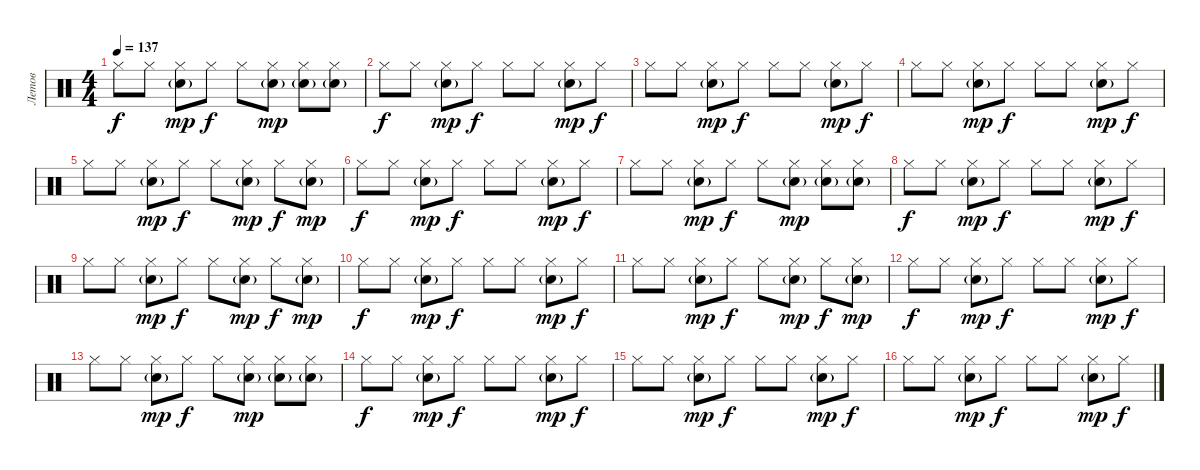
\track ("Летов" "Летов") {instrument percussion}
\staff {score}
\articulation defaults
\ts (4 4)
\tempo 137
\clef neutral
\ks c "Hi-Hat (closed)".8{dy f} "Hi-Hat (closed)".8
("Hi-Hat (closed)" "Electric Snare (hit)"{g}).8{dy mp} "Hi-Hat (closed)".8{dy f} "Hi-Hat (closed)".8 ("Hi-Hat (closed)" "Electric Snare (hit)"{g}).8{dy mp} ("Hi-Hat (closed)" "Electric Snare (hit)"{g}).8 ("Hi-Hat (closed)" "Electric Snare (hit)"{g}).8 |
"Hi-Hat (closed)".8{dy f} "Hi-Hat (closed)".8 ("Hi-Hat (closed)" "Electric Snare (hit)"{g}).8{dy mp} "Hi-Hat (closed)".8{dy f} "Hi-Hat (closed)".8 "Hi-Hat (closed)".8 ("Hi-Hat (closed)" "Electric Snare (hit)"{g}).8{dy mp} "Hi-Hat (closed)".8{dy f} |
"Hi-Hat (closed)".8 "Hi-Hat (closed)".8 ("Hi-Hat (closed)" "Electric Snare (hit)"{g}).8{dy mp} "Hi-Hat (closed)".8{dy f} "Hi-Hat (closed)".8 "Hi-Hat (closed)".8 ("Hi-Hat (closed)" "Electric Snare (hit)"{g}).8{dy mp} "Hi-Hat (closed)".8{dy f} |
"Hi-Hat (closed)".8 "Hi-Hat (closed)".8 ("Hi-Hat (closed)" "Electric Snare (hit)"{g}).8{dy mp} "Hi-Hat (closed)".8{dy f} "Hi-Hat (closed)".8 "Hi-Hat (closed)".8 ("Hi-Hat (closed)" "Electric Snare (hit)"{g}).8{dy mp} "Hi-Hat (closed)".8{dy f} |
"Hi-Hat (closed)".8 "Hi-Hat (closed)".8 ("Hi-Hat (closed)" "Electric Snare (hit)"{g}).8{dy mp} "Hi-Hat (closed)".8{dy f} "Hi-Hat (closed)".8 ("Hi-Hat (closed)" "Electric Snare (hit)"{g}).8{dy mp} "Hi-Hat (closed)".8{dy f} ("Hi-Hat (closed)" "Electric Snare (hit)"{g}).8{dy mp} |
"Hi-Hat (closed)".8{dy f} "Hi-Hat (closed)".8 ("Hi-Hat (closed)" "Electric Snare (hit)"{g}).8{dy mp} "Hi-Hat (closed)".8{dy f} "Hi-Hat (closed)".8 "Hi-Hat (closed)".8 ("Hi-Hat (closed)" "Electric Snare (hit)"{g}).8{dy mp} "Hi-Hat (closed)".8{dy f} |
"Hi-Hat (closed)".8 "Hi-Hat (closed)".8 ("Hi-Hat (closed)" "Electric Snare (hit)"{g}).8{dy mp} "Hi-Hat (closed)".8{dy f} "Hi-Hat (closed)".8 ("Hi-Hat (closed)" "Electric Snare (hit)"{g}).8{dy mp} ("Hi-Hat (closed)" "Electric Snare (hit)"{g}).8 ("Hi-Hat (closed)" "Electric Snare (hit)"{g}).8 |
"Hi-Hat (closed)".8{dy f} "Hi-Hat (closed)".8 ("Hi-Hat (closed)" "Electric Snare (hit)"{g}).8{dy mp} "Hi-Hat (closed)".8{dy f} "Hi-Hat (closed)".8 "Hi-Hat (closed)".8 ("Hi-Hat (closed)" "Electric Snare (hit)"{g}).8{dy mp} "Hi-Hat (closed)".8{dy f} |
"Hi-Hat (closed)".8 "Hi-Hat (closed)".8 ("Hi-Hat (closed)" "Electric Snare (hit)"{g}).8{dy mp} "Hi-Hat (closed)".8{dy f} "Hi-Hat (closed)".8 ("Hi-Hat (closed)" "Electric Snare (hit)"{g}).8{dy mp} "Hi-Hat (closed)".8{dy f} ("Hi-Hat (closed)" "Electric Snare (hit)"{g}).8{dy mp} |
"Hi-Hat (closed)".8{dy f} "Hi-Hat (closed)".8 ("Hi-Hat (closed)" "Electric Snare (hit)"{g}).8{dy mp} "Hi-Hat (closed)".8{dy f} "Hi-Hat (closed)".8 "Hi-Hat (closed)".8 ("Hi-Hat (closed)" "Electric Snare (hit)"{g}).8{dy mp} "Hi-Hat (closed)".8{dy f} |
"Hi-Hat (closed)".8 "Hi-Hat (closed)".8 ("Hi-Hat (closed)" "Electric Snare (hit)"{g}).8{dy mp} "Hi-Hat (closed)".8{dy f} "Hi-Hat (closed)".8 ("Hi-Hat (closed)" "Electric Snare (hit)"{g}).8{dy mp} "Hi-Hat (closed)".8{dy f} ("Hi-Hat (closed)" "Electric Snare (hit)"{g}).8{dy mp} |
"Hi-Hat (closed)".8{dy f} "Hi-Hat (closed)".8 ("Hi-Hat (closed)" "Electric Snare (hit)"{g}).8{dy mp} "Hi-Hat (closed)".8{dy f} "Hi-Hat (closed)".8 "Hi-Hat (closed)".8 ("Hi-Hat (closed)" "Electric Snare (hit)"{g}).8{dy mp} "Hi-Hat (closed)".8{dy f} |
"Hi-Hat (closed)".8 "Hi-Hat (closed)".8 ("Hi-Hat (closed)" "Electric Snare (hit)"{g}).8{dy mp} "Hi-Hat (closed)".8{dy f} "Hi-Hat (closed)".8 ("Hi-Hat (closed)" "Electric Snare (hit)"{g}).8{dy mp} ("Hi-Hat (closed)" "Electric Snare (hit)"{g}).8 ("Hi-Hat (closed)" "Electric Snare (hit)"{g}).8 |
"Hi-Hat (closed)".8{dy f} "Hi-Hat (closed)".8 ("Hi-Hat (closed)" "Electric Snare (hit)"{g}).8{dy mp} "Hi-Hat (closed)".8{dy f} "Hi-Hat (closed)".8 "Hi-Hat (closed)".8 ("Hi-Hat (closed)" "Electric Snare (hit)"{g}).8{dy mp} "Hi-Hat (closed)".8{dy f} |
"Hi-Hat (closed)".8 "Hi-Hat (closed)".8 ("Hi-Hat (closed)" "Electric Snare (hit)"{g}).8{dy mp} "Hi-Hat (closed)".8{dy f} "Hi-Hat (closed)".8 "Hi-Hat (closed)".8 ("Hi-Hat (closed)" "Electric Snare (hit)"{g}).8{dy mp} "Hi-Hat (closed)".8{dy f} |
"Hi-Hat (closed)".8 "Hi-Hat (closed)".8 ("Hi-Hat (closed)" "Electric Snare (hit)"{g}).8{dy mp} "Hi-Hat (closed)".8{dy f} "Hi-Hat (closed)".8 "Hi-Hat (closed)".8 ("Hi-Hat (closed)" "Electric Snare (hit)"{g}).8{dy mp} "Hi-Hat (closed)".8{dy f}
